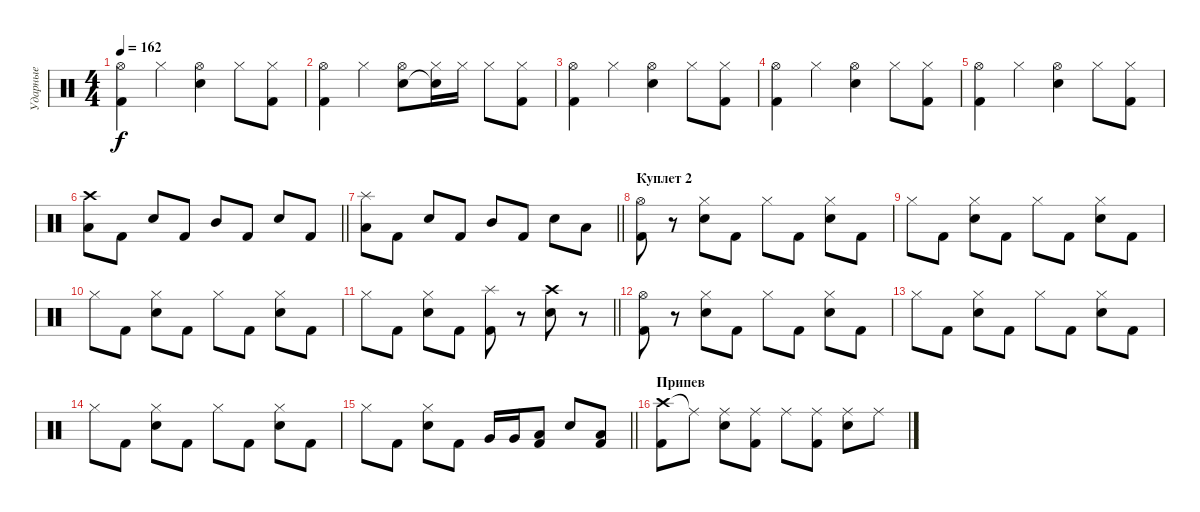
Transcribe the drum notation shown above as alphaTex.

\track ("Ударные" "Ударные") {instrument percussion}
\staff {score}
\articulation defaults
\ts (4 4)
\tempo 162
\clef neutral
\ks c
("Hi-Hat (open)" "Kick (hit) 2").4{dy f} "Hi-Hat (closed)".4 ("Hi-Hat (open)" "Snare (hit) 2").4 "Hi-Hat (closed)".8 ("Hi-Hat (closed)" "Kick (hit) 2").8 |
("Hi-Hat (open)" "Kick (hit) 2").4 "Hi-Hat (closed)".4 ("Hi-Hat (open)" "Snare (hit) 2").8 ("Hi-Hat (closed)" "Snare (hit) 2"{t}).16 "Hi-Hat (closed)".16 "Hi-Hat (closed)".8 ("Hi-Hat (closed)" "Kick (hit) 2").8 |
("Hi-Hat (open)" "Kick (hit) 2").4 "Hi-Hat (closed)".4 ("Hi-Hat (open)" "Snare (hit) 2").4 "Hi-Hat (closed)".8 ("Hi-Hat (closed)" "Kick (hit) 2").8 |
("Hi-Hat (open)" "Kick (hit) 2").4 "Hi-Hat (closed)".4 ("Hi-Hat (open)" "Snare (hit) 2").4 "Hi-Hat (closed)".8 ("Hi-Hat (closed)" "Kick (hit) 2").8 |
("Hi-Hat (open)" "Kick (hit) 2").4 "Hi-Hat (closed)".4 ("Hi-Hat (open)" "Snare (hit) 2").4 "Hi-Hat (closed)".8 ("Hi-Hat (closed)" "Kick (hit) 2").8 |
\barLineRight lightlight
("Crash high (hit)" "Low Tom (hit)").8 "Kick (hit) 2".8 "Snare (hit) 2".8 "Kick (hit) 2".8 "Mid Tom (hit)".8 "Kick (hit) 2".8 "Snare (hit) 2".8 "Kick (hit) 2".8 |
\barLineRight lightlight
("Splash (hit)" "Low Tom (hit)").8 "Kick (hit) 2".8 "Snare (hit) 2".8 "Kick (hit) 2".8 "Mid Tom (hit)".8 "Kick (hit) 2".8 "Snare (hit) 2".8 "Low Tom (hit)".8 |
\section ("" "Куплет 2")
("Hi-Hat (open)" "Kick (hit) 2").8 r.8 ("Hi-Hat (closed)" "Snare (hit) 2").8 "Kick (hit) 2".8 "Hi-Hat (closed)".8 "Kick (hit) 2".8 ("Hi-Hat (closed)" "Snare (hit) 2").8 "Kick (hit) 2".8 |
"Hi-Hat (closed)".8 "Kick (hit) 2".8 ("Hi-Hat (closed)" "Snare (hit) 2").8 "Kick (hit) 2".8 "Hi-Hat (closed)".8 "Kick (hit) 2".8 ("Hi-Hat (closed)" "Snare (hit) 2").8 "Kick (hit) 2".8 |
"Hi-Hat (closed)".8 "Kick (hit) 2".8 ("Hi-Hat (closed)" "Snare (hit) 2").8 "Kick (hit) 2".8 "Hi-Hat (closed)".8 "Kick (hit) 2".8 ("Hi-Hat (closed)" "Snare (hit) 2").8 "Kick (hit) 2".8 |
\barLineRight lightlight "Hi-Hat (closed)".8 "Kick (hit) 2".8
("Hi-Hat (closed)" "Snare (hit) 2").8 "Kick (hit) 2".8 ("Splash (hit)" "Kick (hit) 2").8 r.8 ("Crash high (hit)" "Snare (hit) 2").8 r.8 |
("Hi-Hat (open)" "Kick (hit) 2").8 r.8 ("Hi-Hat (closed)" "Snare (hit) 2").8 "Kick (hit) 2".8 "Hi-Hat (closed)".8 "Kick (hit) 2".8 ("Hi-Hat (closed)" "Snare (hit) 2").8 "Kick (hit) 2".8 |
"Hi-Hat (closed)".8 "Kick (hit) 2".8 ("Hi-Hat (closed)" "Snare (hit) 2").8 "Kick (hit) 2".8 "Hi-Hat (closed)".8 "Kick (hit) 2".8 ("Hi-Hat (closed)" "Snare (hit) 2").8 "Kick (hit) 2".8 |
"Hi-Hat (closed)".8 "Kick (hit) 2".8 ("Hi-Hat (closed)" "Snare (hit) 2").8 "Kick (hit) 2".8 "Hi-Hat (closed)".8 "Kick (hit) 2".8 ("Hi-Hat (closed)" "Snare (hit) 2").8 "Kick (hit) 2".8 |
\barLineRight lightlight "Hi-Hat (closed)".8 "Kick (hit) 2".8
("Hi-Hat (closed)" "Snare (hit) 2").8 "Kick (hit) 2".8 "Very Low Tom (hit)".16 "Very Low Tom (hit)".16 ("Low Tom (hit)" "Kick (hit) 2").8 "Snare (hit) 2".8 ("Low Tom (hit)" "Kick (hit) 2").8 |
\section ("" "Припев")
("Crash high (hit)" "Kick (hit) 2").8 "Ride (middle)"{t}.8 ("Ride (middle)" "Snare (hit) 2").8 ("Ride (middle)" "Kick (hit) 2").8 "Ride (middle)".8 ("Ride (middle)" "Kick (hit) 2").8 ("Ride (middle)" "Snare (hit) 2").8 "Ride (middle)".8
